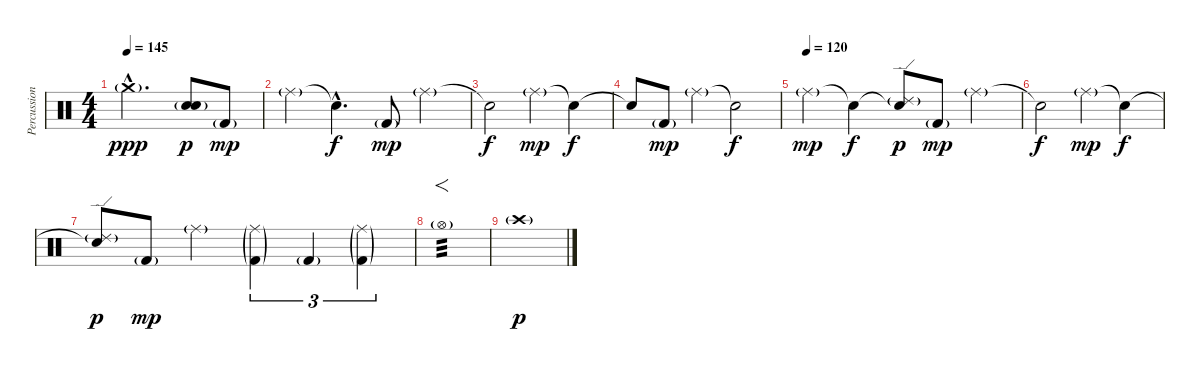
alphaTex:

\track ("Percussion" "Percussion") {instrument percussion}
\staff {score}
\articulation defaults
\ts (4 4)
\tempo 145
\clef neutral
\ks c "Crash medium (hit)"{g hac}.2{d dy ppp}
("Hand Clap (hit)"{g} "Snare (hit) 2"{g}).8{dy p} "Kick (hit) 2"{g}.8{dy mp} |
"Ride (middle)"{g}.4 "Snare (hit)"{hac t}.4{d dy f} "Kick (hit) 2"{g}.8{dy mp} "Ride (middle)"{g}.4 |
"Snare (hit)"{t}.2{dy f} "Ride (middle)"{g}.4{dy mp} "Snare (hit)"{t}.4{dy f} |
"Snare (hit)"{t}.8 "Kick (hit) 2"{g}.8{dy mp} "Ride (middle)"{g}.4 "Snare (hit)"{t}.2{dy f} |
\tempo (120)
"Ride (middle)"{g}.4{dy mp} "Snare (hit)"{t}.4{dy f} ("Snare (hit)"{t} "Ride (edge) 2"{g}).8{dy p} "Kick (hit) 2"{g}.8{dy mp} "Ride (middle)"{g}.4 |
"Snare (hit)"{t}.2{dy f} "Ride (middle)"{g}.4{dy mp} "Snare (hit)"{t}.4{dy f} |
("Snare (hit)"{t} "Ride (edge) 2"{g}).8{dy p} "Kick (hit) 2"{g}.8{dy mp} "Ride (middle)"{g}.4 ("Ride (middle)"{g} "Kick (hit) 2"{g}).4{tu (3 2)} "Kick (hit) 2"{g}.4{tu (3 2)} ("Ride (middle)"{g} "Kick (hit) 2"{g}).4{tu (3 2)} |
"Hi-Hat (open)"{g}.1{f tp 3} |
"Crash high (hit)"{g}.1{dy p}
